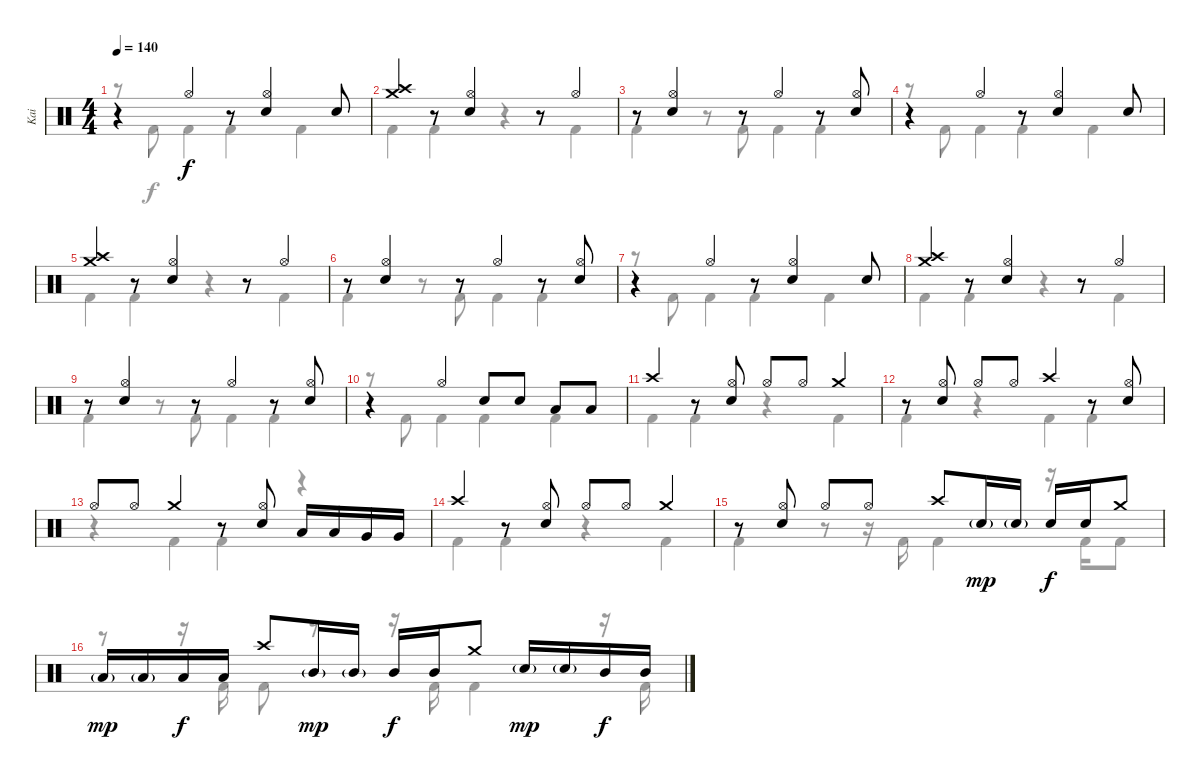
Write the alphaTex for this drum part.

\track ("Kai" "Kai") {instrument percussion}
\staff {score}
\articulation defaults
\voice
\ts (4 4)
\tempo 140
\clef neutral
\ks c
r.4{dy f} "Hi-Hat (open)".4 r.8 ("Hi-Hat (open)" "Snare (hit) 2").4 "Snare (hit) 2".8 |
("Crash medium (hit)" "Crash high (hit)").4 r.8 ("Hi-Hat (open)" "Snare (hit) 2").4 r.8 "Hi-Hat (open)".4 |
r.8 ("Hi-Hat (open)" "Snare (hit) 2").4 r.8 "Hi-Hat (open)".4 r.8 ("Hi-Hat (open)" "Snare (hit) 2").8 |
r.4 "Hi-Hat (open)".4 r.8 ("Hi-Hat (open)" "Snare (hit) 2").4 "Snare (hit) 2".8 |
("Crash medium (hit)" "Crash high (hit)").4 r.8 ("Hi-Hat (open)" "Snare (hit) 2").4 r.8 "Hi-Hat (open)".4 |
r.8 ("Hi-Hat (open)" "Snare (hit) 2").4 r.8 "Hi-Hat (open)".4 r.8 ("Hi-Hat (open)" "Snare (hit) 2").8 |
r.4 "Hi-Hat (open)".4 r.8 ("Hi-Hat (open)" "Snare (hit) 2").4 "Snare (hit) 2".8 |
("Crash medium (hit)" "Crash high (hit)").4 r.8 ("Hi-Hat (open)" "Snare (hit) 2").4 r.8 "Hi-Hat (open)".4 |
r.8 ("Hi-Hat (open)" "Snare (hit) 2").4 r.8 "Hi-Hat (open)".4 r.8 ("Hi-Hat (open)" "Snare (hit) 2").8 |
r.4 "Hi-Hat (open)".4 "Snare (hit) 2".8 "Snare (hit) 2".8 "Low Tom (hit)".8 "Low Tom (hit)".8 |
"Crash high (hit)".4 r.8 ("Hi-Hat (open)" "Snare (hit) 2").8 "Hi-Hat (open)".8 "Hi-Hat (open)".8 "Crash medium (hit)".4 |
r.8 ("Hi-Hat (open)" "Snare (hit) 2").8 "Hi-Hat (open)".8 "Hi-Hat (open)".8 "Crash high (hit)".4 r.8 ("Hi-Hat (open)" "Snare (hit) 2").8 |
"Hi-Hat (open)".8 "Hi-Hat (open)".8 "Crash medium (hit)".4 r.8 ("Hi-Hat (open)" "Snare (hit) 2").8 "Low Tom (hit)".16 "Low Tom (hit)".16 "Very Low Tom (hit)".16 "Very Low Tom (hit)".16 |
"Crash high (hit)".4 r.8 ("Hi-Hat (open)" "Snare (hit) 2").8 "Hi-Hat (open)".8 "Hi-Hat (open)".8 "Crash medium (hit)".4 |
r.8 ("Hi-Hat (open)" "Snare (hit) 2").8 "Hi-Hat (open)".8 "Hi-Hat (open)".8 "Crash high (hit)".8 "Snare (hit) 2"{g}.16{dy mp} "Snare (hit) 2"{g}.16 "Snare (hit) 2".16{dy f} "Snare (hit) 2".16 "Crash medium (hit)".8 |
"Low Tom (hit)"{g}.16{dy mp} "Low Tom (hit)"{g}.16 "Low Tom (hit)".16{dy f} "Low Tom (hit)".16 "Crash high (hit)".8 "Mid Tom (hit)"{g}.16{dy mp} "Mid Tom (hit)"{g}.16 "Mid Tom (hit)".16{dy f} "Mid Tom (hit)".16 "Crash medium (hit)".8 "Snare (hit) 2"{g}.16{dy mp} "Snare (hit) 2"{g}.16 "Mid Tom (hit)".16{dy f} "Mid Tom (hit)".16
\voice
\clef neutral
\ottava regular
\simile none
\ks c
r.8{dy f} "Kick (hit) 2".8 "Kick (hit) 2".4 "Kick (hit) 2".4 "Kick (hit) 2".4 |
"Kick (hit) 2".4 "Kick (hit) 2".4 r.4 "Kick (hit) 2".4 |
"Kick (hit) 2".4 r.8 "Kick (hit) 2".8 "Kick (hit) 2".4 "Kick (hit) 2".4 |
r.8 "Kick (hit) 2".8 "Kick (hit) 2".4 "Kick (hit) 2".4 "Kick (hit) 2".4 |
"Kick (hit) 2".4 "Kick (hit) 2".4 r.4 "Kick (hit) 2".4 |
"Kick (hit) 2".4 r.8 "Kick (hit) 2".8 "Kick (hit) 2".4 "Kick (hit) 2".4 |
r.8 "Kick (hit) 2".8 "Kick (hit) 2".4 "Kick (hit) 2".4 "Kick (hit) 2".4 |
"Kick (hit) 2".4 "Kick (hit) 2".4 r.4 "Kick (hit) 2".4 |
"Kick (hit) 2".4 r.8 "Kick (hit) 2".8 "Kick (hit) 2".4 "Kick (hit) 2".4 |
r.8 "Kick (hit) 2".8 "Kick (hit) 2".4 "Kick (hit) 2".4 "Kick (hit) 2".4 |
"Kick (hit) 2".4 "Kick (hit) 2".4 r.4 "Kick (hit) 2".4 |
"Kick (hit) 2".4 r.4 "Kick (hit) 2".4 "Kick (hit) 2".4 |
r.4 "Kick (hit) 2".4 "Kick (hit) 2".4 r.4 |
"Kick (hit) 2".4 "Kick (hit) 2".4 r.4 "Kick (hit) 2".4 |
"Kick (hit) 2".4 r.8 r.16 "Kick (hit) 2".16 "Kick (hit) 2".4 r.16 "Kick (hit) 2".16 "Kick (hit) 2".8 |
r.8 r.16 "Kick (hit) 2".16 "Kick (hit) 2".8 r.8 r.16 "Kick (hit) 2".16 "Kick (hit) 2".4 r.16 "Kick (hit) 2".16
